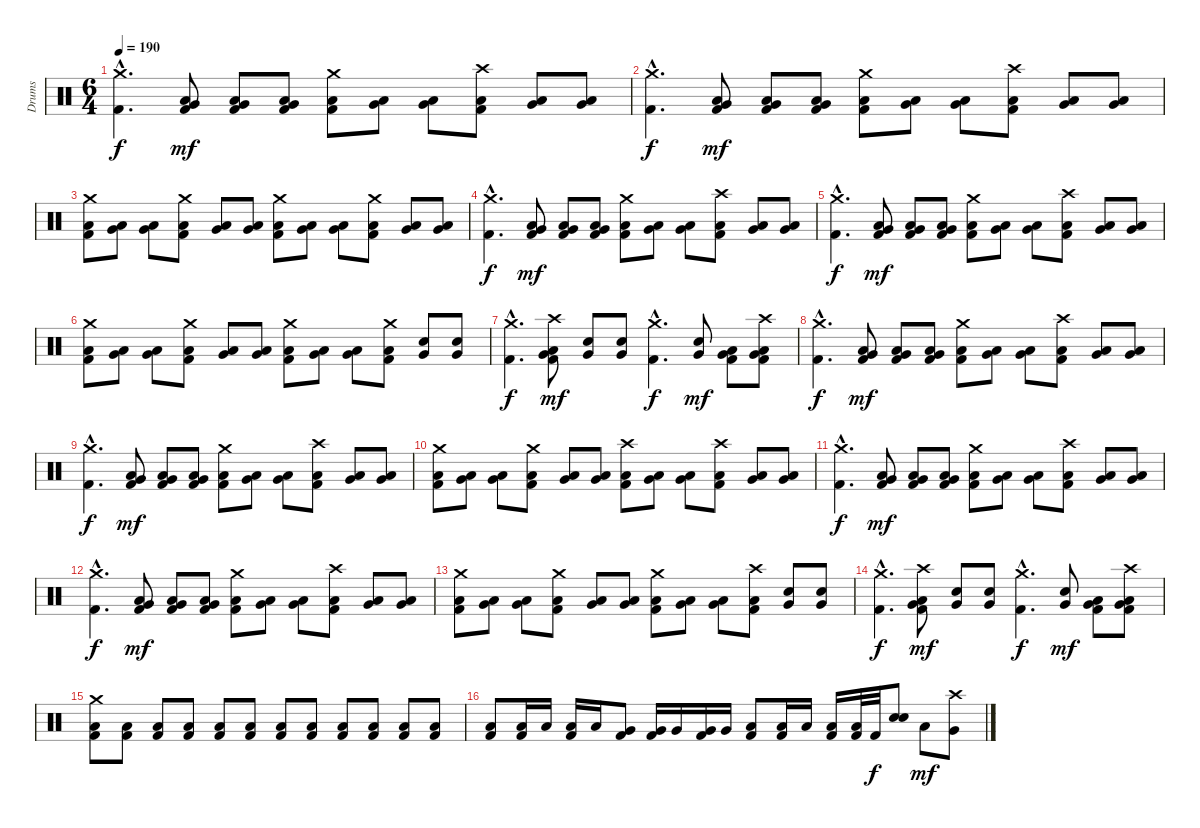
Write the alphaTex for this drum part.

\track ("Drums" "Drums") {instrument percussion}
\staff {score}
\articulation defaults
\ts (6 4)
\tempo 190
\clef neutral
\ks c
("Crash medium (hit)"{hac} "Kick (hit) 2"{hac}).4{d dy f} ("Very Low Tom (hit)" "Low Floor Tom (hit)" "Kick (hit) 2").8{dy mf} ("Very Low Tom (hit)" "Low Floor Tom (hit)" "Kick (hit) 2").8 ("Very Low Tom (hit)" "Low Floor Tom (hit)" "Kick (hit) 2").8 ("Crash medium (hit)" "Low Floor Tom (hit)" "Kick (hit) 2").8 ("Very Low Tom (hit)" "Low Floor Tom (hit)").8 ("Very Low Tom (hit)" "Low Floor Tom (hit)").8 ("Crash high (hit)" "Low Floor Tom (hit)" "Kick (hit) 2").8 ("Very Low Tom (hit)" "Low Floor Tom (hit)").8 ("Very Low Tom (hit)" "Low Floor Tom (hit)").8 |
("Crash medium (hit)"{hac} "Kick (hit) 2"{hac}).4{d dy f} ("Very Low Tom (hit)" "Low Floor Tom (hit)" "Kick (hit) 2").8{dy mf} ("Very Low Tom (hit)" "Low Floor Tom (hit)" "Kick (hit) 2").8 ("Very Low Tom (hit)" "Low Floor Tom (hit)" "Kick (hit) 2").8 ("Crash medium (hit)" "Low Floor Tom (hit)" "Kick (hit) 2").8 ("Very Low Tom (hit)" "Low Floor Tom (hit)").8 ("Very Low Tom (hit)" "Low Floor Tom (hit)").8 ("Crash high (hit)" "Low Floor Tom (hit)" "Kick (hit) 2").8 ("Very Low Tom (hit)" "Low Floor Tom (hit)").8 ("Very Low Tom (hit)" "Low Floor Tom (hit)").8 |
("Crash medium (hit)" "Low Floor Tom (hit)" "Kick (hit) 2").8 ("Very Low Tom (hit)" "Low Floor Tom (hit)").8 ("Very Low Tom (hit)" "Low Floor Tom (hit)").8 ("Crash medium (hit)" "Low Floor Tom (hit)" "Kick (hit) 2").8 ("Very Low Tom (hit)" "Low Floor Tom (hit)").8 ("Very Low Tom (hit)" "Low Floor Tom (hit)").8 ("Crash medium (hit)" "Low Floor Tom (hit)" "Kick (hit) 2").8 ("Very Low Tom (hit)" "Low Floor Tom (hit)").8 ("Very Low Tom (hit)" "Low Floor Tom (hit)").8 ("Crash medium (hit)" "Low Floor Tom (hit)" "Kick (hit) 2").8 ("Very Low Tom (hit)" "Low Floor Tom (hit)").8 ("Very Low Tom (hit)" "Low Floor Tom (hit)").8 |
("Crash medium (hit)"{hac} "Kick (hit) 2"{hac}).4{d dy f} ("Very Low Tom (hit)" "Low Floor Tom (hit)" "Kick (hit) 2").8{dy mf} ("Very Low Tom (hit)" "Low Floor Tom (hit)" "Kick (hit) 2").8 ("Very Low Tom (hit)" "Low Floor Tom (hit)" "Kick (hit) 2").8 ("Crash medium (hit)" "Low Floor Tom (hit)" "Kick (hit) 2").8 ("Very Low Tom (hit)" "Low Floor Tom (hit)").8 ("Very Low Tom (hit)" "Low Floor Tom (hit)").8 ("Crash high (hit)" "Low Floor Tom (hit)" "Kick (hit) 2").8 ("Very Low Tom (hit)" "Low Floor Tom (hit)").8 ("Very Low Tom (hit)" "Low Floor Tom (hit)").8 |
("Crash medium (hit)"{hac} "Kick (hit) 2"{hac}).4{d dy f} ("Very Low Tom (hit)" "Low Floor Tom (hit)" "Kick (hit) 2").8{dy mf} ("Very Low Tom (hit)" "Low Floor Tom (hit)" "Kick (hit) 2").8 ("Very Low Tom (hit)" "Low Floor Tom (hit)" "Kick (hit) 2").8 ("Crash medium (hit)" "Low Floor Tom (hit)" "Kick (hit) 2").8 ("Very Low Tom (hit)" "Low Floor Tom (hit)").8 ("Very Low Tom (hit)" "Low Floor Tom (hit)").8 ("Crash high (hit)" "Low Floor Tom (hit)" "Kick (hit) 2").8 ("Very Low Tom (hit)" "Low Floor Tom (hit)").8 ("Very Low Tom (hit)" "Low Floor Tom (hit)").8 |
("Crash medium (hit)" "Low Floor Tom (hit)" "Kick (hit) 2").8 ("Very Low Tom (hit)" "Low Floor Tom (hit)").8 ("Very Low Tom (hit)" "Low Floor Tom (hit)").8 ("Crash medium (hit)" "Low Floor Tom (hit)" "Kick (hit) 2").8 ("Very Low Tom (hit)" "Low Floor Tom (hit)").8 ("Very Low Tom (hit)" "Low Floor Tom (hit)").8 ("Crash medium (hit)" "Low Floor Tom (hit)" "Kick (hit) 2").8 ("Very Low Tom (hit)" "Low Floor Tom (hit)").8 ("Very Low Tom (hit)" "Low Floor Tom (hit)").8 ("Crash medium (hit)" "Low Floor Tom (hit)" "Kick (hit) 2").8 ("Very Low Tom (hit)" "Snare (hit) 2").8 ("Very Low Tom (hit)" "Snare (hit) 2").8 |
("Crash medium (hit)"{hac} "Kick (hit) 2"{hac}).4{d dy f} ("Crash high (hit)" "Very Low Tom (hit)" "Low Floor Tom (hit)" "Kick (hit) 2").8{dy mf} ("Very Low Tom (hit)" "Snare (hit) 2").8 ("Very Low Tom (hit)" "Snare (hit) 2").8 ("Crash medium (hit)"{hac} "Kick (hit) 2"{hac}).4{d dy f} ("Very Low Tom (hit)" "Snare (hit) 2").8{dy mf} ("Very Low Tom (hit)" "Low Floor Tom (hit)" "Kick (hit) 2").8 ("Crash high (hit)" "Very Low Tom (hit)" "Low Floor Tom (hit)" "Kick (hit) 2").8 |
("Crash medium (hit)"{hac} "Kick (hit) 2"{hac}).4{d dy f} ("Very Low Tom (hit)" "Low Floor Tom (hit)" "Kick (hit) 2").8{dy mf} ("Very Low Tom (hit)" "Low Floor Tom (hit)" "Kick (hit) 2").8 ("Very Low Tom (hit)" "Low Floor Tom (hit)" "Kick (hit) 2").8 ("Crash medium (hit)" "Low Floor Tom (hit)" "Kick (hit) 2").8 ("Very Low Tom (hit)" "Low Floor Tom (hit)").8 ("Very Low Tom (hit)" "Low Floor Tom (hit)").8 ("Crash high (hit)" "Low Floor Tom (hit)" "Kick (hit) 2").8 ("Very Low Tom (hit)" "Low Floor Tom (hit)").8 ("Very Low Tom (hit)" "Low Floor Tom (hit)").8 |
("Crash medium (hit)"{hac} "Kick (hit) 2"{hac}).4{d dy f} ("Very Low Tom (hit)" "Low Floor Tom (hit)" "Kick (hit) 2").8{dy mf} ("Very Low Tom (hit)" "Low Floor Tom (hit)" "Kick (hit) 2").8 ("Very Low Tom (hit)" "Low Floor Tom (hit)" "Kick (hit) 2").8 ("Crash medium (hit)" "Low Floor Tom (hit)" "Kick (hit) 2").8 ("Very Low Tom (hit)" "Low Floor Tom (hit)").8 ("Very Low Tom (hit)" "Low Floor Tom (hit)").8 ("Crash high (hit)" "Low Floor Tom (hit)" "Kick (hit) 2").8 ("Very Low Tom (hit)" "Low Floor Tom (hit)").8 ("Very Low Tom (hit)" "Low Floor Tom (hit)").8 |
("Crash medium (hit)" "Low Floor Tom (hit)" "Kick (hit) 2").8 ("Very Low Tom (hit)" "Low Floor Tom (hit)").8 ("Very Low Tom (hit)" "Low Floor Tom (hit)").8 ("Crash medium (hit)" "Low Floor Tom (hit)" "Kick (hit) 2").8 ("Very Low Tom (hit)" "Low Floor Tom (hit)").8 ("Very Low Tom (hit)" "Low Floor Tom (hit)").8 ("Crash high (hit)" "Low Floor Tom (hit)" "Kick (hit) 2").8 ("Very Low Tom (hit)" "Low Floor Tom (hit)").8 ("Very Low Tom (hit)" "Low Floor Tom (hit)").8 ("Crash high (hit)" "Low Floor Tom (hit)" "Kick (hit) 2").8 ("Very Low Tom (hit)" "Low Floor Tom (hit)").8 ("Very Low Tom (hit)" "Low Floor Tom (hit)").8 |
("Crash medium (hit)"{hac} "Kick (hit) 2"{hac}).4{d dy f} ("Very Low Tom (hit)" "Low Floor Tom (hit)" "Kick (hit) 2").8{dy mf} ("Very Low Tom (hit)" "Low Floor Tom (hit)" "Kick (hit) 2").8 ("Very Low Tom (hit)" "Low Floor Tom (hit)" "Kick (hit) 2").8 ("Crash medium (hit)" "Low Floor Tom (hit)" "Kick (hit) 2").8 ("Very Low Tom (hit)" "Low Floor Tom (hit)").8 ("Very Low Tom (hit)" "Low Floor Tom (hit)").8 ("Crash high (hit)" "Low Floor Tom (hit)" "Kick (hit) 2").8 ("Very Low Tom (hit)" "Low Floor Tom (hit)").8 ("Very Low Tom (hit)" "Low Floor Tom (hit)").8 |
("Crash medium (hit)"{hac} "Kick (hit) 2"{hac}).4{d dy f} ("Very Low Tom (hit)" "Low Floor Tom (hit)" "Kick (hit) 2").8{dy mf} ("Very Low Tom (hit)" "Low Floor Tom (hit)" "Kick (hit) 2").8 ("Very Low Tom (hit)" "Low Floor Tom (hit)" "Kick (hit) 2").8 ("Crash medium (hit)" "Low Floor Tom (hit)" "Kick (hit) 2").8 ("Very Low Tom (hit)" "Low Floor Tom (hit)").8 ("Very Low Tom (hit)" "Low Floor Tom (hit)").8 ("Crash high (hit)" "Low Floor Tom (hit)" "Kick (hit) 2").8 ("Very Low Tom (hit)" "Low Floor Tom (hit)").8 ("Very Low Tom (hit)" "Low Floor Tom (hit)").8 |
("Crash medium (hit)" "Low Floor Tom (hit)" "Kick (hit) 2").8 ("Very Low Tom (hit)" "Low Floor Tom (hit)").8 ("Very Low Tom (hit)" "Low Floor Tom (hit)").8 ("Crash medium (hit)" "Low Floor Tom (hit)" "Kick (hit) 2").8 ("Very Low Tom (hit)" "Low Floor Tom (hit)").8 ("Very Low Tom (hit)" "Low Floor Tom (hit)").8 ("Crash medium (hit)" "Low Floor Tom (hit)" "Kick (hit) 2").8 ("Very Low Tom (hit)" "Low Floor Tom (hit)").8 ("Very Low Tom (hit)" "Low Floor Tom (hit)").8 ("Crash high (hit)" "Low Floor Tom (hit)" "Kick (hit) 2").8 ("Very Low Tom (hit)" "Snare (hit) 2").8 ("Very Low Tom (hit)" "Snare (hit) 2").8 |
("Crash medium (hit)"{hac} "Kick (hit) 2"{hac}).4{d dy f} ("Crash high (hit)" "Very Low Tom (hit)" "Low Floor Tom (hit)" "Kick (hit) 2").8{dy mf} ("Very Low Tom (hit)" "Snare (hit) 2").8 ("Very Low Tom (hit)" "Snare (hit) 2").8 ("Crash medium (hit)"{hac} "Kick (hit) 2"{hac}).4{d dy f} ("Very Low Tom (hit)" "Snare (hit) 2").8{dy mf} ("Very Low Tom (hit)" "Low Floor Tom (hit)" "Kick (hit) 2").8 ("Crash high (hit)" "Very Low Tom (hit)" "Low Floor Tom (hit)" "Kick (hit) 2").8 |
("Crash medium (hit)" "Low Floor Tom (hit)" "Kick (hit) 2").8 ("Low Floor Tom (hit)" "Kick (hit) 2").8 ("Low Floor Tom (hit)" "Kick (hit) 2").8 ("Low Floor Tom (hit)" "Kick (hit) 2").8 ("Low Floor Tom (hit)" "Kick (hit) 2").8 ("Low Floor Tom (hit)" "Kick (hit) 2").8 ("Low Floor Tom (hit)" "Kick (hit) 2").8 ("Low Floor Tom (hit)" "Kick (hit) 2").8 ("Low Floor Tom (hit)" "Kick (hit) 2").8 ("Low Floor Tom (hit)" "Kick (hit) 2").8 ("Low Floor Tom (hit)" "Kick (hit) 2").8 ("Low Floor Tom (hit)" "Kick (hit) 2").8 |
("Low Tom (hit)" "Kick (hit) 2").8 ("Low Tom (hit)" "Kick (hit) 2").16 "Low Tom (hit)".16 ("Low Tom (hit)" "Kick (hit) 2").16 "Low Tom (hit)".16 ("Very Low Tom (hit)" "Kick (hit) 2").8 ("Very Low Tom (hit)" "Kick (hit) 2").16 "Very Low Tom (hit)".16 ("Very Low Tom (hit)" "Kick (hit) 2").16 "Very Low Tom (hit)".16 ("Low Floor Tom (hit)" "Kick (hit) 2").8 ("Low Floor Tom (hit)" "Kick (hit) 2").16 "Low Floor Tom (hit)".16 ("Low Floor Tom (hit)" "Kick (hit) 2").16 ("Low Floor Tom (hit)" "Kick (hit) 2").32 "Kick (hit) 2".32{dy f} ("Snare (hit) 2" "Snare (hit) 2").8{bu 480} "Low Tom (hit)".8{dy mf} ("Crash high (hit)" "Very Low Tom (hit)").8
